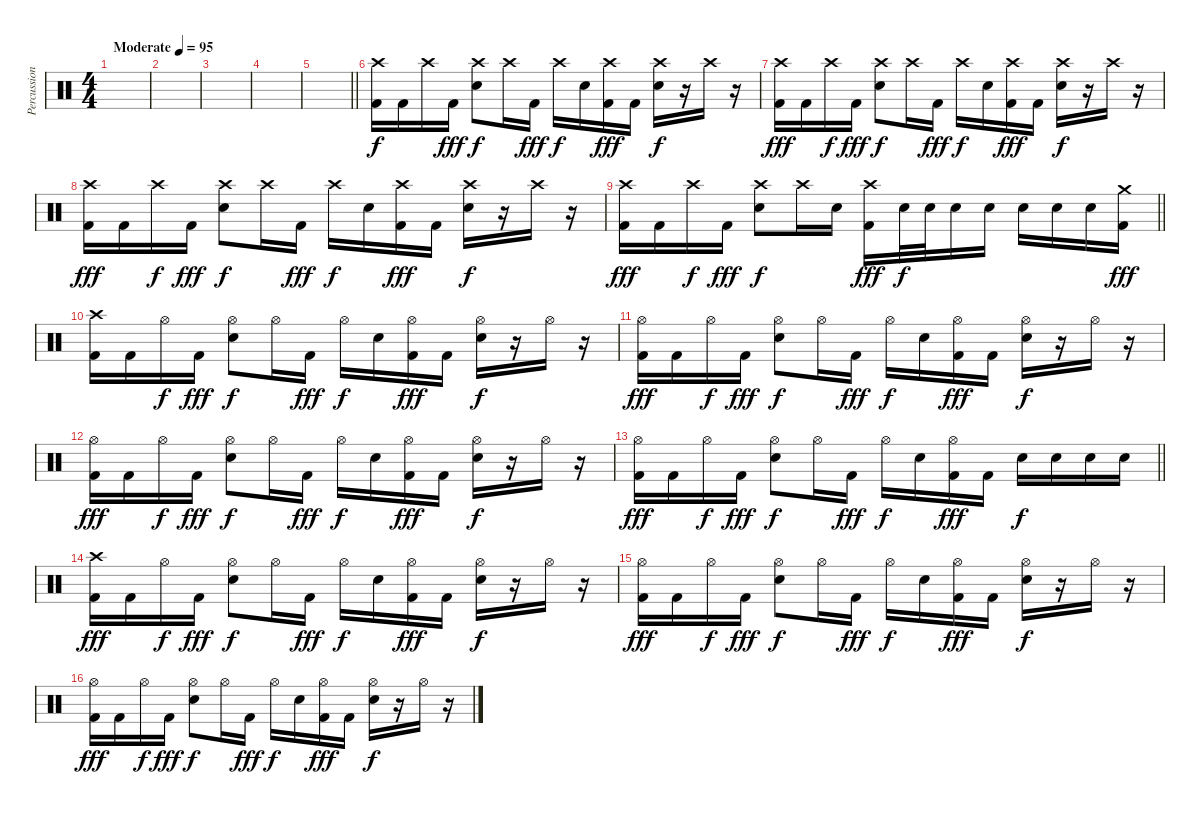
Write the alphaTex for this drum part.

\track ("Percussions" "Percussion") {instrument percussion}
\staff {score}
\articulation defaults
\ts (4 4)
\tempo (95 "Moderate")
\clef neutral
\ks c
|
|
|
|
\barLineRight lightlight
|
("Kick (hit) 2" "Crash high (hit)").16 "Kick (hit) 2".16 "Crash high (hit)".16{dy f} "Kick (hit) 2".16{dy fff} ("Electric Snare (hit)" "Crash high (hit)").8{dy f} "Crash high (hit)".16 "Kick (hit) 2".16{dy fff} "Crash high (hit)".16{dy f} "Electric Snare (hit)".16 ("Kick (hit) 2" "Crash high (hit)").16{dy fff} "Kick (hit) 2".16 ("Electric Snare (hit)" "Crash high (hit)").16{dy f} r.16 "Crash high (hit)".16 r.16 |
("Kick (hit) 2" "Crash high (hit)").16{dy fff} "Kick (hit) 2".16 "Crash high (hit)".16{dy f} "Kick (hit) 2".16{dy fff} ("Electric Snare (hit)" "Crash high (hit)").8{dy f} "Crash high (hit)".16 "Kick (hit) 2".16{dy fff} "Crash high (hit)".16{dy f} "Electric Snare (hit)".16 ("Kick (hit) 2" "Crash high (hit)").16{dy fff} "Kick (hit) 2".16 ("Electric Snare (hit)" "Crash high (hit)").16{dy f} r.16 "Crash high (hit)".16 r.16 |
("Kick (hit) 2" "Crash high (hit)").16{dy fff} "Kick (hit) 2".16 "Crash high (hit)".16{dy f} "Kick (hit) 2".16{dy fff} ("Electric Snare (hit)" "Crash high (hit)").8{dy f} "Crash high (hit)".16 "Kick (hit) 2".16{dy fff} "Crash high (hit)".16{dy f} "Electric Snare (hit)".16 ("Kick (hit) 2" "Crash high (hit)").16{dy fff} "Kick (hit) 2".16 ("Electric Snare (hit)" "Crash high (hit)").16{dy f} r.16 "Crash high (hit)".16 r.16 |
\barLineRight lightlight
("Kick (hit) 2" "Crash high (hit)").16{dy fff} "Kick (hit) 2".16 "Crash high (hit)".16{dy f} "Kick (hit) 2".16{dy fff} ("Electric Snare (hit)" "Crash high (hit)").8{dy f} "Crash high (hit)".16 "Electric Snare (hit)".16 ("Crash high (hit)" "Kick (hit) 2").16{dy fff} "Electric Snare (hit)".32{dy f} "Electric Snare (hit)".32 "Electric Snare (hit)".16 "Electric Snare (hit)".16 "Electric Snare (hit)".16 "Electric Snare (hit)".16 "Electric Snare (hit)".16 ("Kick (hit) 2" "Crash medium (hit)").16{dy fff} |
("Kick (hit) 2" "Crash high (hit)").16 "Kick (hit) 2".16 "Hi-Hat (open)".16{dy f} "Kick (hit) 2".16{dy fff} ("Electric Snare (hit)" "Hi-Hat (open)").8{dy f} "Hi-Hat (open)".16 "Kick (hit) 2".16{dy fff} "Hi-Hat (open)".16{dy f} "Electric Snare (hit)".16 ("Kick (hit) 2" "Hi-Hat (open)").16{dy fff} "Kick (hit) 2".16 ("Electric Snare (hit)" "Hi-Hat (open)").16{dy f} r.16 "Hi-Hat (open)".16 r.16 |
("Kick (hit) 2" "Hi-Hat (open)").16{dy fff} "Kick (hit) 2".16 "Hi-Hat (open)".16{dy f} "Kick (hit) 2".16{dy fff} ("Electric Snare (hit)" "Hi-Hat (open)").8{dy f} "Hi-Hat (open)".16 "Kick (hit) 2".16{dy fff} "Hi-Hat (open)".16{dy f} "Electric Snare (hit)".16 ("Kick (hit) 2" "Hi-Hat (open)").16{dy fff} "Kick (hit) 2".16 ("Electric Snare (hit)" "Hi-Hat (open)").16{dy f} r.16 "Hi-Hat (open)".16 r.16 |
("Kick (hit) 2" "Hi-Hat (open)").16{dy fff} "Kick (hit) 2".16 "Hi-Hat (open)".16{dy f} "Kick (hit) 2".16{dy fff} ("Electric Snare (hit)" "Hi-Hat (open)").8{dy f} "Hi-Hat (open)".16 "Kick (hit) 2".16{dy fff} "Hi-Hat (open)".16{dy f} "Electric Snare (hit)".16 ("Kick (hit) 2" "Hi-Hat (open)").16{dy fff} "Kick (hit) 2".16 ("Electric Snare (hit)" "Hi-Hat (open)").16{dy f} r.16 "Hi-Hat (open)".16 r.16 |
\barLineRight lightlight
("Kick (hit) 2" "Hi-Hat (open)").16{dy fff} "Kick (hit) 2".16 "Hi-Hat (open)".16{dy f} "Kick (hit) 2".16{dy fff} ("Electric Snare (hit)" "Hi-Hat (open)").8{dy f} "Hi-Hat (open)".16 "Kick (hit) 2".16{dy fff} "Hi-Hat (open)".16{dy f} "Electric Snare (hit)".16 ("Kick (hit) 2" "Hi-Hat (open)").16{dy fff} "Kick (hit) 2".16 "Electric Snare (hit)".16{dy f} "Electric Snare (hit)".16 "Electric Snare (hit)".16 "Electric Snare (hit)".16 |
("Kick (hit) 2" "Crash high (hit)").16{dy fff} "Kick (hit) 2".16 "Hi-Hat (open)".16{dy f} "Kick (hit) 2".16{dy fff} ("Electric Snare (hit)" "Hi-Hat (open)").8{dy f} "Hi-Hat (open)".16 "Kick (hit) 2".16{dy fff} "Hi-Hat (open)".16{dy f} "Electric Snare (hit)".16 ("Kick (hit) 2" "Hi-Hat (open)").16{dy fff} "Kick (hit) 2".16 ("Electric Snare (hit)" "Hi-Hat (open)").16{dy f} r.16 "Hi-Hat (open)".16 r.16 |
("Kick (hit) 2" "Hi-Hat (open)").16{dy fff} "Kick (hit) 2".16 "Hi-Hat (open)".16{dy f} "Kick (hit) 2".16{dy fff} ("Electric Snare (hit)" "Hi-Hat (open)").8{dy f} "Hi-Hat (open)".16 "Kick (hit) 2".16{dy fff} "Hi-Hat (open)".16{dy f} "Electric Snare (hit)".16 ("Kick (hit) 2" "Hi-Hat (open)").16{dy fff} "Kick (hit) 2".16 ("Electric Snare (hit)" "Hi-Hat (open)").16{dy f} r.16 "Hi-Hat (open)".16 r.16 |
("Kick (hit) 2" "Hi-Hat (open)").16{dy fff} "Kick (hit) 2".16 "Hi-Hat (open)".16{dy f} "Kick (hit) 2".16{dy fff} ("Electric Snare (hit)" "Hi-Hat (open)").8{dy f} "Hi-Hat (open)".16 "Kick (hit) 2".16{dy fff} "Hi-Hat (open)".16{dy f} "Electric Snare (hit)".16 ("Kick (hit) 2" "Hi-Hat (open)").16{dy fff} "Kick (hit) 2".16 ("Electric Snare (hit)" "Hi-Hat (open)").16{dy f} r.16 "Hi-Hat (open)".16 r.16
